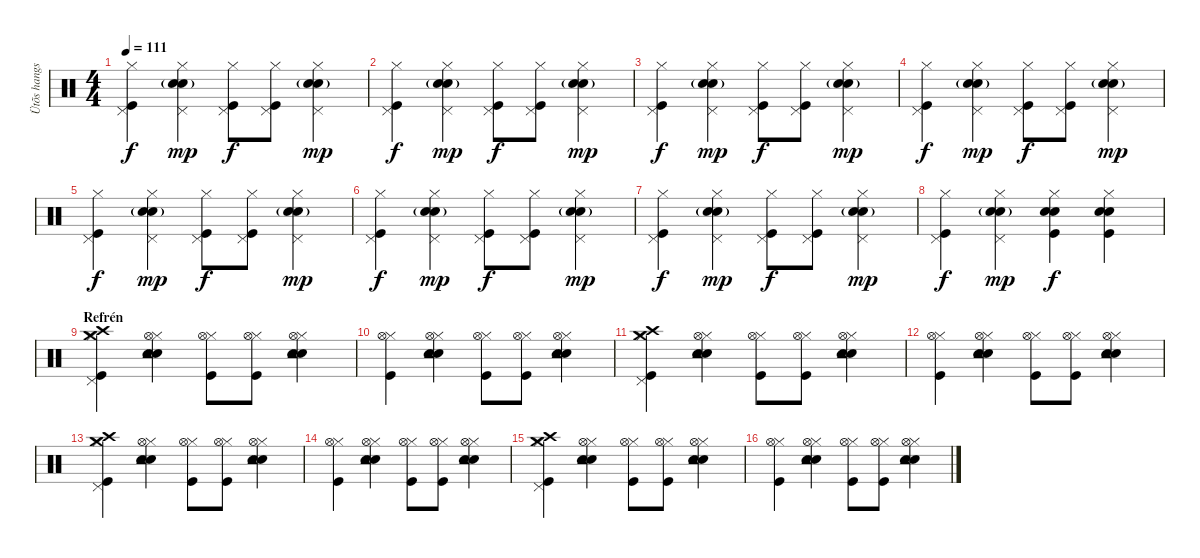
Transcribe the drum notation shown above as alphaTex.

\track ("Ütõs hangszer" "Ütõs hangs") {instrument percussion}
\staff {score}
\articulation defaults
\ts (4 4)
\tempo 111
\clef neutral
\ks c
("Hi-Hat (closed)" "Pedal Hi-Hat (hit)" "Kick (hit)").4{dy f} ("Hi-Hat (closed)" "Electric Snare (hit)"{g} "Snare (hit) 2" "Pedal Hi-Hat (hit)").4{dy mp} ("Hi-Hat (closed)" "Pedal Hi-Hat (hit)" "Kick (hit)").8{dy f} ("Hi-Hat (closed)" "Pedal Hi-Hat (hit)" "Kick (hit)").8 ("Hi-Hat (closed)" "Electric Snare (hit)"{g} "Snare (hit) 2" "Pedal Hi-Hat (hit)").4{dy mp} |
("Hi-Hat (closed)" "Pedal Hi-Hat (hit)" "Kick (hit)").4{dy f} ("Hi-Hat (closed)" "Electric Snare (hit)"{g} "Snare (hit) 2" "Pedal Hi-Hat (hit)").4{dy mp} ("Hi-Hat (closed)" "Pedal Hi-Hat (hit)" "Kick (hit)").8{dy f} ("Hi-Hat (closed)" "Pedal Hi-Hat (hit)" "Kick (hit)").8 ("Hi-Hat (closed)" "Electric Snare (hit)"{g} "Snare (hit) 2" "Pedal Hi-Hat (hit)").4{dy mp} |
("Hi-Hat (closed)" "Pedal Hi-Hat (hit)" "Kick (hit)").4{dy f} ("Hi-Hat (closed)" "Electric Snare (hit)"{g} "Snare (hit) 2" "Pedal Hi-Hat (hit)").4{dy mp} ("Hi-Hat (closed)" "Pedal Hi-Hat (hit)" "Kick (hit)").8{dy f} ("Hi-Hat (closed)" "Pedal Hi-Hat (hit)" "Kick (hit)").8 ("Hi-Hat (closed)" "Electric Snare (hit)"{g} "Snare (hit) 2" "Pedal Hi-Hat (hit)").4{dy mp} |
("Hi-Hat (closed)" "Pedal Hi-Hat (hit)" "Kick (hit)").4{dy f} ("Hi-Hat (closed)" "Electric Snare (hit)"{g} "Snare (hit) 2" "Pedal Hi-Hat (hit)").4{dy mp} ("Hi-Hat (closed)" "Pedal Hi-Hat (hit)" "Kick (hit)").8{dy f} ("Hi-Hat (closed)" "Pedal Hi-Hat (hit)" "Kick (hit)").8 ("Hi-Hat (closed)" "Electric Snare (hit)"{g} "Snare (hit) 2" "Pedal Hi-Hat (hit)").4{dy mp} |
("Hi-Hat (closed)" "Pedal Hi-Hat (hit)" "Kick (hit)").4{dy f} ("Hi-Hat (closed)" "Electric Snare (hit)"{g} "Snare (hit) 2" "Pedal Hi-Hat (hit)").4{dy mp} ("Hi-Hat (closed)" "Pedal Hi-Hat (hit)" "Kick (hit)").8{dy f} ("Hi-Hat (closed)" "Pedal Hi-Hat (hit)" "Kick (hit)").8 ("Hi-Hat (closed)" "Electric Snare (hit)"{g} "Snare (hit) 2" "Pedal Hi-Hat (hit)").4{dy mp} |
("Hi-Hat (closed)" "Pedal Hi-Hat (hit)" "Kick (hit)").4{dy f} ("Hi-Hat (closed)" "Electric Snare (hit)"{g} "Snare (hit) 2" "Pedal Hi-Hat (hit)").4{dy mp} ("Hi-Hat (closed)" "Pedal Hi-Hat (hit)" "Kick (hit)").8{dy f} ("Hi-Hat (closed)" "Pedal Hi-Hat (hit)" "Kick (hit)").8 ("Hi-Hat (closed)" "Electric Snare (hit)"{g} "Snare (hit) 2" "Pedal Hi-Hat (hit)").4{dy mp} |
("Hi-Hat (closed)" "Pedal Hi-Hat (hit)" "Kick (hit)").4{dy f} ("Hi-Hat (closed)" "Electric Snare (hit)"{g} "Snare (hit) 2" "Pedal Hi-Hat (hit)").4{dy mp} ("Hi-Hat (closed)" "Pedal Hi-Hat (hit)" "Kick (hit)").8{dy f} ("Hi-Hat (closed)" "Pedal Hi-Hat (hit)" "Kick (hit)").8 ("Hi-Hat (closed)" "Electric Snare (hit)"{g} "Snare (hit) 2" "Pedal Hi-Hat (hit)").4{dy mp} |
("Hi-Hat (closed)" "Pedal Hi-Hat (hit)" "Kick (hit)").4{dy f} ("Hi-Hat (closed)" "Electric Snare (hit)"{g} "Snare (hit) 2" "Pedal Hi-Hat (hit)").4{dy mp} ("Hi-Hat (closed)" "Electric Snare (hit)" "Snare (hit) 2" "Kick (hit)").4{dy f} ("Hi-Hat (closed)" "Electric Snare (hit)" "Snare (hit) 2" "Kick (hit)").4 |
\section ("" "Refrén")
("Hi-Hat (closed)" "Pedal Hi-Hat (hit)" "Crash high (hit)" "Crash medium (hit)" "Kick (hit)").4 ("Hi-Hat (closed)" "Electric Snare (hit)" "Snare (hit) 2" "Hi-Hat (open)" "Tambourine (hit)").4 ("Hi-Hat (closed)" "Hi-Hat (open)" "Kick (hit)").8 ("Hi-Hat (closed)" "Hi-Hat (open)" "Kick (hit)").8 ("Hi-Hat (closed)" "Electric Snare (hit)" "Snare (hit) 2" "Hi-Hat (open)" "Tambourine (hit)").4 |
("Hi-Hat (closed)" "Hi-Hat (open)" "Kick (hit)").4 ("Hi-Hat (closed)" "Electric Snare (hit)" "Snare (hit) 2" "Hi-Hat (open)" "Tambourine (hit)").4 ("Hi-Hat (closed)" "Hi-Hat (open)" "Kick (hit)").8 ("Hi-Hat (closed)" "Hi-Hat (open)" "Kick (hit)").8 ("Hi-Hat (closed)" "Electric Snare (hit)" "Snare (hit) 2" "Hi-Hat (open)" "Tambourine (hit)").4 |
("Hi-Hat (closed)" "Pedal Hi-Hat (hit)" "Crash high (hit)" "Crash medium (hit)" "Kick (hit)").4 ("Hi-Hat (closed)" "Electric Snare (hit)" "Snare (hit) 2" "Hi-Hat (open)" "Tambourine (hit)").4 ("Hi-Hat (closed)" "Hi-Hat (open)" "Kick (hit)").8 ("Hi-Hat (closed)" "Hi-Hat (open)" "Kick (hit)").8 ("Hi-Hat (closed)" "Electric Snare (hit)" "Snare (hit) 2" "Hi-Hat (open)" "Tambourine (hit)").4 |
("Hi-Hat (closed)" "Hi-Hat (open)" "Kick (hit)").4 ("Hi-Hat (closed)" "Electric Snare (hit)" "Snare (hit) 2" "Hi-Hat (open)" "Tambourine (hit)").4 ("Hi-Hat (closed)" "Hi-Hat (open)" "Kick (hit)").8 ("Hi-Hat (closed)" "Hi-Hat (open)" "Kick (hit)").8 ("Hi-Hat (closed)" "Electric Snare (hit)" "Snare (hit) 2" "Hi-Hat (open)" "Tambourine (hit)").4 |
("Hi-Hat (closed)" "Pedal Hi-Hat (hit)" "Crash high (hit)" "Crash medium (hit)" "Kick (hit)").4 ("Hi-Hat (closed)" "Electric Snare (hit)" "Snare (hit) 2" "Hi-Hat (open)" "Tambourine (hit)").4 ("Hi-Hat (closed)" "Hi-Hat (open)" "Kick (hit)").8 ("Hi-Hat (closed)" "Hi-Hat (open)" "Kick (hit)").8 ("Hi-Hat (closed)" "Electric Snare (hit)" "Snare (hit) 2" "Hi-Hat (open)" "Tambourine (hit)").4 |
("Hi-Hat (closed)" "Hi-Hat (open)" "Kick (hit)").4 ("Hi-Hat (closed)" "Electric Snare (hit)" "Snare (hit) 2" "Hi-Hat (open)" "Tambourine (hit)").4 ("Hi-Hat (closed)" "Hi-Hat (open)" "Kick (hit)").8 ("Hi-Hat (closed)" "Hi-Hat (open)" "Kick (hit)").8 ("Hi-Hat (closed)" "Electric Snare (hit)" "Snare (hit) 2" "Hi-Hat (open)" "Tambourine (hit)").4 |
("Hi-Hat (closed)" "Pedal Hi-Hat (hit)" "Crash high (hit)" "Crash medium (hit)" "Kick (hit)").4 ("Hi-Hat (closed)" "Electric Snare (hit)" "Snare (hit) 2" "Hi-Hat (open)" "Tambourine (hit)").4 ("Hi-Hat (closed)" "Hi-Hat (open)" "Kick (hit)").8 ("Hi-Hat (closed)" "Hi-Hat (open)" "Kick (hit)").8 ("Hi-Hat (closed)" "Electric Snare (hit)" "Snare (hit) 2" "Hi-Hat (open)" "Tambourine (hit)").4 |
("Hi-Hat (closed)" "Hi-Hat (open)" "Kick (hit)").4 ("Hi-Hat (closed)" "Electric Snare (hit)" "Snare (hit) 2" "Hi-Hat (open)" "Tambourine (hit)").4 ("Hi-Hat (closed)" "Hi-Hat (open)" "Kick (hit)").8 ("Hi-Hat (closed)" "Hi-Hat (open)" "Kick (hit)").8 ("Hi-Hat (closed)" "Electric Snare (hit)" "Snare (hit) 2" "Hi-Hat (open)" "Tambourine (hit)").4
